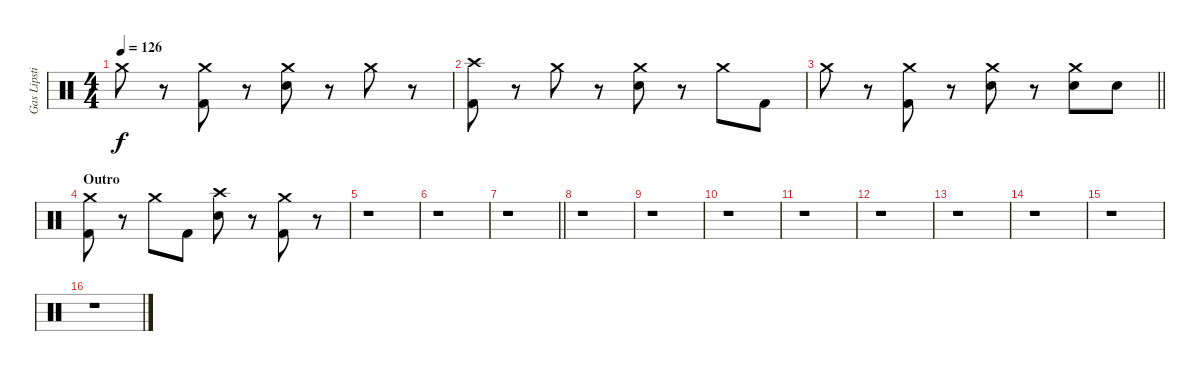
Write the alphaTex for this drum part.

\track ("Gas Lipstick (Drums)" "Gas Lipsti") {instrument percussion}
\staff {score}
\articulation defaults
\ts (4 4)
\tempo 126
\clef neutral
\ks c "Crash medium (hit)".8{dy f}
r.8 ("Crash medium (hit)" "Kick (hit) 2").8 r.8 ("Crash medium (hit)" "Snare (hit) 2").8 r.8 "Crash medium (hit)".8 r.8 |
("Crash high (hit)" "Kick (hit) 2").8 r.8 "Crash medium (hit)".8 r.8 ("Crash medium (hit)" "Snare (hit) 2").8 r.8 "Crash medium (hit)".8 "Kick (hit) 2".8 |
\barLineRight lightlight "Crash medium (hit)".8
r.8 ("Crash medium (hit)" "Kick (hit) 2").8 r.8 ("Crash medium (hit)" "Snare (hit) 2").8 r.8 ("Crash medium (hit)" "Snare (hit) 2").8 "Snare (hit) 2".8 |
\section ("" "Outro")
("Crash medium (hit)" "Kick (hit) 2").8 r.8 "Crash medium (hit)".8 "Kick (hit) 2".8 ("Crash high (hit)" "Snare (hit) 2").8 r.8 ("Crash medium (hit)" "Kick (hit) 2").8 r.8 |
r.1 |
r.1 |
\barLineRight lightlight
r.1 |
r.1 |
r.1 |
r.1 |
r.1 |
r.1 |
r.1 |
r.1 |
r.1 |
r.1
